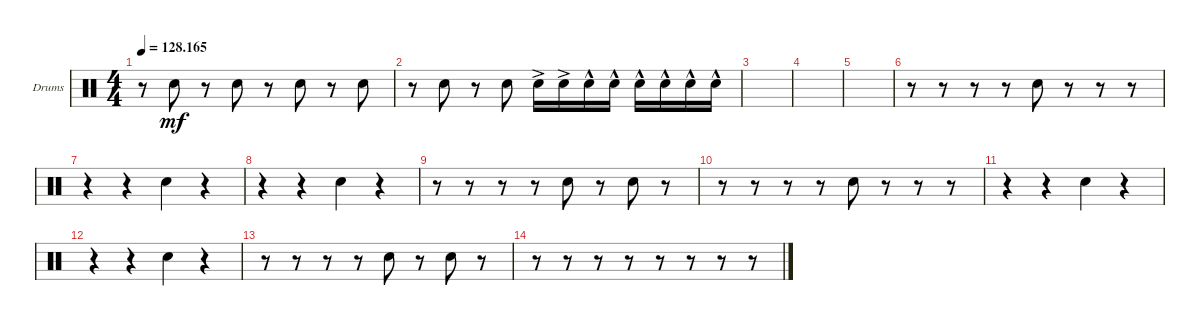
\defaultSystemsLayout 4
\bracketExtendMode groupsimilarinstruments
\firstSystemTrackNameOrientation horizontal
\otherSystemsTrackNameOrientation horizontal
\track ("Drumkit" "Drums") {instrument percussion}
\staff {score}
\articulation defaults
\ts (4 4)
\tempo
128.165
\accidentals auto
\clef neutral
\ottava regular
\simile none
\ks c
r.8{dy mf} "Snare (hit) 2".8 r.8 "Snare (hit) 2".8 r.8 "Snare (hit) 2".8 r.8 "Snare (hit) 2".8 |
r.8 "Snare (hit) 2".8 r.8 "Snare (hit) 2".8 "Snare (hit) 2"{ac}.16 "Snare (hit) 2"{ac}.16 "Snare (hit) 2"{hac}.16 "Snare (hit) 2"{hac}.16 "Snare (hit) 2"{hac}.16 "Snare (hit) 2"{hac}.16 "Snare (hit) 2"{hac}.16 "Snare (hit) 2"{hac}.16 |
|
|
|
r.8 r.8 r.8 r.8 "Snare (hit) 2".8 r.8 r.8 r.8 |
r.4 r.4 "Snare (hit) 2".4 r.4 |
r.4 r.4 "Snare (hit) 2".4 r.4 |
r.8 r.8 r.8 r.8 "Snare (hit) 2".8 r.8 "Snare (hit) 2".8 r.8 |
r.8 r.8 r.8 r.8 "Snare (hit) 2".8 r.8 r.8 r.8 |
r.4 r.4 "Snare (hit) 2".4 r.4 |
r.4 r.4 "Snare (hit) 2".4 r.4 |
r.8 r.8 r.8 r.8 "Snare (hit) 2".8 r.8 "Snare (hit) 2".8 r.8 |
r.8 r.8 r.8 r.8 r.8 r.8 r.8 r.8
